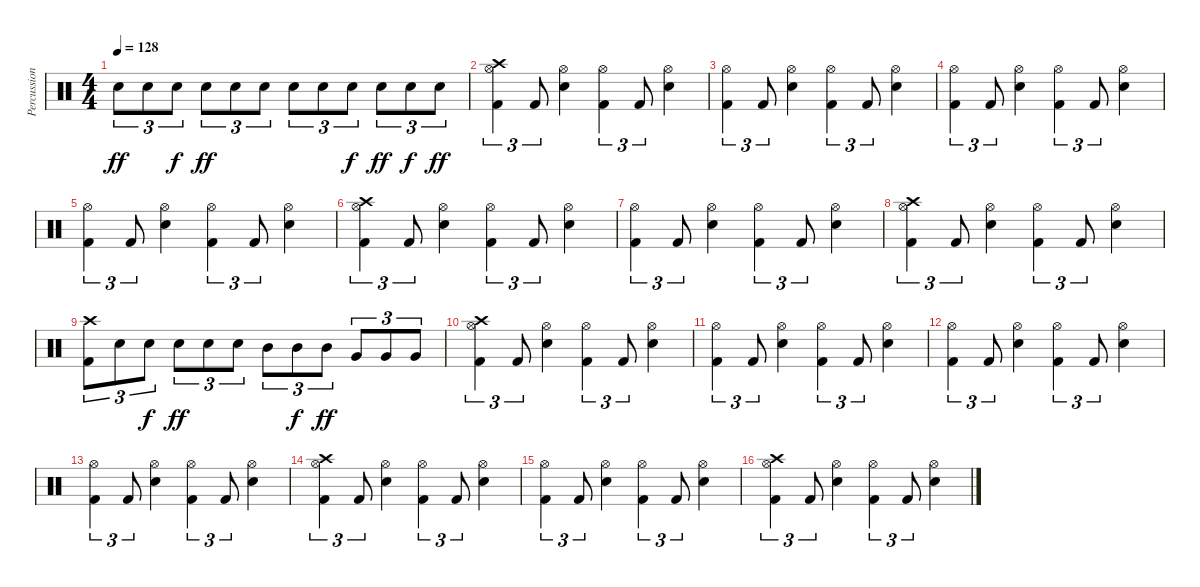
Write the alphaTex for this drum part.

\track ("Percussion" "Percussion") {instrument percussion}
\staff {score}
\articulation defaults
\ts (4 4)
\tempo 128
\clef neutral
\ks c "Snare (hit) 2".8{tu (3 2) dy ff} "Snare (hit) 2".8{tu (3 2)} "Snare (hit) 2".8{tu (3 2) dy f} "Snare (hit) 2".8{tu (3 2) dy ff} "Snare (hit) 2".8{tu (3 2)} "Snare (hit) 2".8{tu (3 2)} "Snare (hit) 2".8{tu (3 2)} "Snare (hit) 2".8{tu (3 2)} "Snare (hit) 2".8{tu (3 2) dy f} "Snare (hit) 2".8{tu (3 2) dy ff} "Snare (hit) 2".8{tu (3 2) dy f} "Snare (hit) 2".8{tu (3 2) dy ff}
|
("Crash high (hit)" "Hi-Hat (open)" "Kick (hit) 2").4{tu (3 2)} "Kick (hit) 2".8{tu (3 2)} ("Hi-Hat (open)" "Snare (hit) 2").4 ("Kick (hit) 2" "Hi-Hat (open)").4{tu (3 2)} "Kick (hit) 2".8{tu (3 2)} ("Snare (hit) 2" "Hi-Hat (open)").4 |
("Hi-Hat (open)" "Kick (hit) 2").4{tu (3 2)} "Kick (hit) 2".8{tu (3 2)} ("Snare (hit) 2" "Hi-Hat (open)").4 ("Kick (hit) 2" "Hi-Hat (open)").4{tu (3 2)} "Kick (hit) 2".8{tu (3 2)} ("Snare (hit) 2" "Hi-Hat (open)").4 |
("Hi-Hat (open)" "Kick (hit) 2").4{tu (3 2)} "Kick (hit) 2".8{tu (3 2)} ("Snare (hit) 2" "Hi-Hat (open)").4 ("Kick (hit) 2" "Hi-Hat (open)").4{tu (3 2)} "Kick (hit) 2".8{tu (3 2)} ("Snare (hit) 2" "Hi-Hat (open)").4 |
("Hi-Hat (open)" "Kick (hit) 2").4{tu (3 2)} "Kick (hit) 2".8{tu (3 2)} ("Snare (hit) 2" "Hi-Hat (open)").4 ("Kick (hit) 2" "Hi-Hat (open)").4{tu (3 2)} "Kick (hit) 2".8{tu (3 2)} ("Snare (hit) 2" "Hi-Hat (open)").4 |
("Crash high (hit)" "Hi-Hat (open)" "Kick (hit) 2").4{tu (3 2)} "Kick (hit) 2".8{tu (3 2)} ("Hi-Hat (open)" "Snare (hit) 2").4 ("Kick (hit) 2" "Hi-Hat (open)").4{tu (3 2)} "Kick (hit) 2".8{tu (3 2)} ("Snare (hit) 2" "Hi-Hat (open)").4 |
("Hi-Hat (open)" "Kick (hit) 2").4{tu (3 2)} "Kick (hit) 2".8{tu (3 2)} ("Snare (hit) 2" "Hi-Hat (open)").4 ("Kick (hit) 2" "Hi-Hat (open)").4{tu (3 2)} "Kick (hit) 2".8{tu (3 2)} ("Snare (hit) 2" "Hi-Hat (open)").4 |
("Crash high (hit)" "Hi-Hat (open)" "Kick (hit) 2").4{tu (3 2)} "Kick (hit) 2".8{tu (3 2)} ("Hi-Hat (open)" "Snare (hit) 2").4 ("Kick (hit) 2" "Hi-Hat (open)").4{tu (3 2)} "Kick (hit) 2".8{tu (3 2)} ("Snare (hit) 2" "Hi-Hat (open)").4 |
("Kick (hit) 2" "Crash high (hit)").8{tu (3 2)} "Snare (hit) 2".8{tu (3 2)} "Snare (hit) 2".8{tu (3 2) dy f} "Snare (hit) 2".8{tu (3 2) dy ff} "Snare (hit) 2".8{tu (3 2)} "Snare (hit) 2".8{tu (3 2)} "Mid Tom (hit)".8{tu (3 2)} "Mid Tom (hit)".8{tu (3 2) dy f} "Mid Tom (hit)".8{tu (3 2) dy ff} "Very Low Tom (hit)".8{tu (3 2)} "Very Low Tom (hit)".8{tu (3 2)} "Very Low Tom (hit)".8{tu (3 2)} |
("Kick (hit) 2" "Crash high (hit)" "Hi-Hat (open)").4{tu (3 2)} "Kick (hit) 2".8{tu (3 2)} ("Hi-Hat (open)" "Snare (hit) 2").4 ("Kick (hit) 2" "Hi-Hat (open)").4{tu (3 2)} "Kick (hit) 2".8{tu (3 2)} ("Hi-Hat (open)" "Snare (hit) 2").4 |
("Kick (hit) 2" "Hi-Hat (open)").4{tu (3 2)} "Kick (hit) 2".8{tu (3 2)} ("Snare (hit) 2" "Hi-Hat (open)").4 ("Hi-Hat (open)" "Kick (hit) 2").4{tu (3 2)} "Kick (hit) 2".8{tu (3 2)} ("Snare (hit) 2" "Hi-Hat (open)").4 |
("Kick (hit) 2" "Hi-Hat (open)").4{tu (3 2)} "Kick (hit) 2".8{tu (3 2)} ("Snare (hit) 2" "Hi-Hat (open)").4 ("Hi-Hat (open)" "Kick (hit) 2").4{tu (3 2)} "Kick (hit) 2".8{tu (3 2)} ("Snare (hit) 2" "Hi-Hat (open)").4 |
("Kick (hit) 2" "Hi-Hat (open)").4{tu (3 2)} "Kick (hit) 2".8{tu (3 2)} ("Snare (hit) 2" "Hi-Hat (open)").4 ("Hi-Hat (open)" "Kick (hit) 2").4{tu (3 2)} "Kick (hit) 2".8{tu (3 2)} ("Snare (hit) 2" "Hi-Hat (open)").4 |
("Kick (hit) 2" "Crash high (hit)" "Hi-Hat (open)").4{tu (3 2)} "Kick (hit) 2".8{tu (3 2)} ("Hi-Hat (open)" "Snare (hit) 2").4 ("Kick (hit) 2" "Hi-Hat (open)").4{tu (3 2)} "Kick (hit) 2".8{tu (3 2)} ("Hi-Hat (open)" "Snare (hit) 2").4 |
("Kick (hit) 2" "Hi-Hat (open)").4{tu (3 2)} "Kick (hit) 2".8{tu (3 2)} ("Snare (hit) 2" "Hi-Hat (open)").4 ("Hi-Hat (open)" "Kick (hit) 2").4{tu (3 2)} "Kick (hit) 2".8{tu (3 2)} ("Snare (hit) 2" "Hi-Hat (open)").4 |
("Kick (hit) 2" "Crash high (hit)" "Hi-Hat (open)").4{tu (3 2)} "Kick (hit) 2".8{tu (3 2)} ("Hi-Hat (open)" "Snare (hit) 2").4 ("Kick (hit) 2" "Hi-Hat (open)").4{tu (3 2)} "Kick (hit) 2".8{tu (3 2)} ("Hi-Hat (open)" "Snare (hit) 2").4
